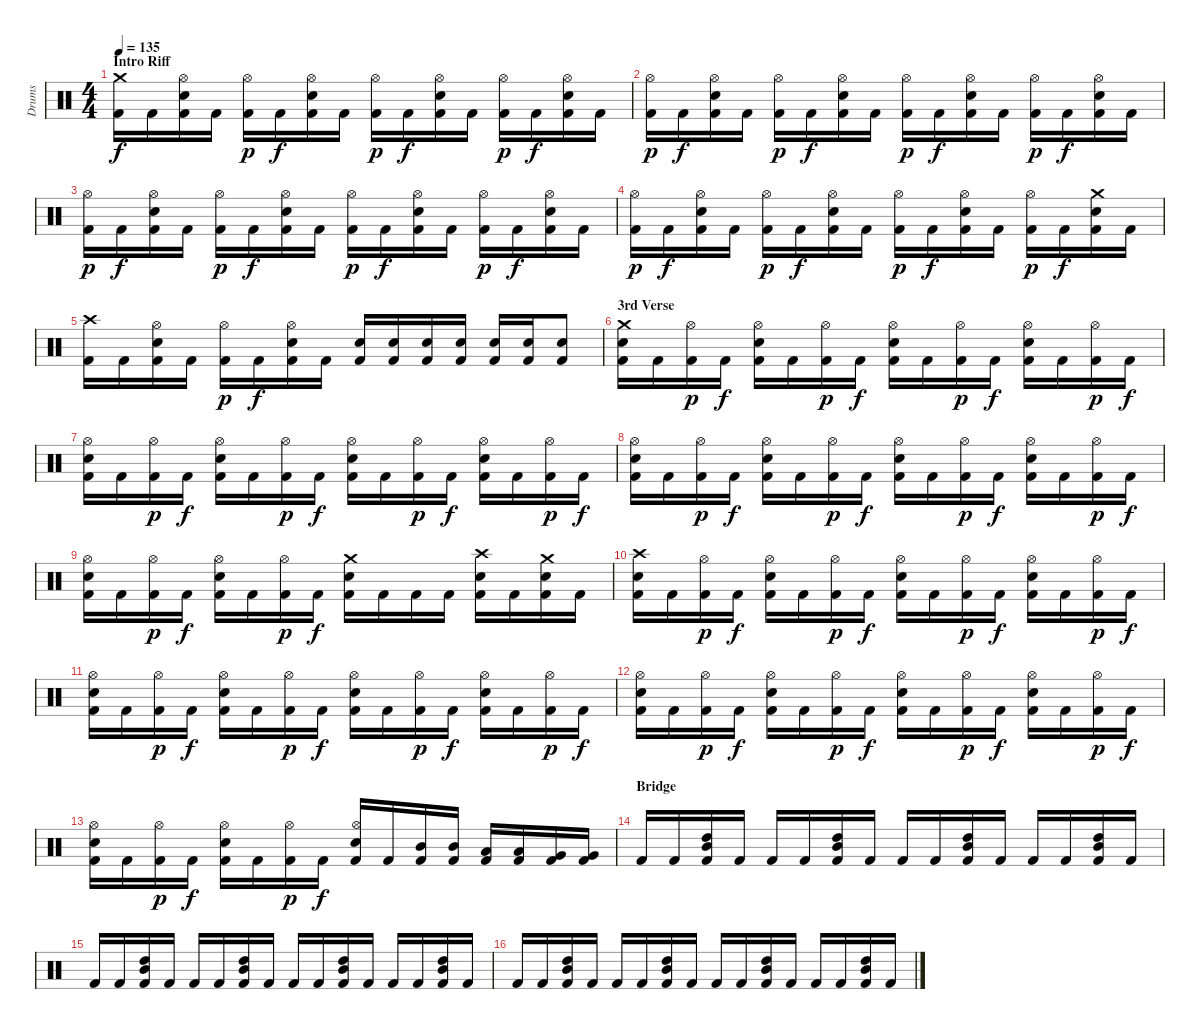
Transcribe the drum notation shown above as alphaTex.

\track ("Drums" "Drums") {instrument percussion}
\staff {score}
\articulation defaults
\ts (4 4)
\section ("" "Intro Riff")
\tempo 135
\clef neutral
\ks c
("Crash medium (hit)" "Kick (hit) 2").16{dy f} "Kick (hit) 2".16 ("Hi-Hat (open)" "Snare (hit) 2" "Kick (hit) 2").16 "Kick (hit) 2".16 ("Hi-Hat (open)" "Kick (hit) 2").16{dy p} "Kick (hit) 2".16{dy f} ("Hi-Hat (open)" "Snare (hit) 2" "Kick (hit) 2").16 "Kick (hit) 2".16 ("Hi-Hat (open)" "Kick (hit) 2").16{dy p} "Kick (hit) 2".16{dy f} ("Hi-Hat (open)" "Snare (hit) 2" "Kick (hit) 2").16 "Kick (hit) 2".16 ("Hi-Hat (open)" "Kick (hit) 2").16{dy p} "Kick (hit) 2".16{dy f} ("Hi-Hat (open)" "Snare (hit) 2" "Kick (hit) 2").16 "Kick (hit) 2".16 |
("Hi-Hat (open)" "Kick (hit) 2").16{dy p} "Kick (hit) 2".16{dy f} ("Hi-Hat (open)" "Snare (hit) 2" "Kick (hit) 2").16 "Kick (hit) 2".16 ("Hi-Hat (open)" "Kick (hit) 2").16{dy p} "Kick (hit) 2".16{dy f} ("Hi-Hat (open)" "Snare (hit) 2" "Kick (hit) 2").16 "Kick (hit) 2".16 ("Hi-Hat (open)" "Kick (hit) 2").16{dy p} "Kick (hit) 2".16{dy f} ("Hi-Hat (open)" "Snare (hit) 2" "Kick (hit) 2").16 "Kick (hit) 2".16 ("Hi-Hat (open)" "Kick (hit) 2").16{dy p} "Kick (hit) 2".16{dy f} ("Hi-Hat (open)" "Snare (hit) 2" "Kick (hit) 2").16 "Kick (hit) 2".16 |
("Hi-Hat (open)" "Kick (hit) 2").16{dy p} "Kick (hit) 2".16{dy f} ("Hi-Hat (open)" "Snare (hit) 2" "Kick (hit) 2").16 "Kick (hit) 2".16 ("Hi-Hat (open)" "Kick (hit) 2").16{dy p} "Kick (hit) 2".16{dy f} ("Hi-Hat (open)" "Snare (hit) 2" "Kick (hit) 2").16 "Kick (hit) 2".16 ("Hi-Hat (open)" "Kick (hit) 2").16{dy p} "Kick (hit) 2".16{dy f} ("Hi-Hat (open)" "Snare (hit) 2" "Kick (hit) 2").16 "Kick (hit) 2".16 ("Hi-Hat (open)" "Kick (hit) 2").16{dy p} "Kick (hit) 2".16{dy f} ("Hi-Hat (open)" "Snare (hit) 2" "Kick (hit) 2").16 "Kick (hit) 2".16 |
("Hi-Hat (open)" "Kick (hit) 2").16{dy p} "Kick (hit) 2".16{dy f} ("Hi-Hat (open)" "Snare (hit) 2" "Kick (hit) 2").16 "Kick (hit) 2".16 ("Hi-Hat (open)" "Kick (hit) 2").16{dy p} "Kick (hit) 2".16{dy f} ("Hi-Hat (open)" "Snare (hit) 2" "Kick (hit) 2").16 "Kick (hit) 2".16 ("Hi-Hat (open)" "Kick (hit) 2").16{dy p} "Kick (hit) 2".16{dy f} ("Hi-Hat (open)" "Snare (hit) 2" "Kick (hit) 2").16 "Kick (hit) 2".16 ("Hi-Hat (open)" "Kick (hit) 2").16{dy p} "Kick (hit) 2".16{dy f} ("Crash medium (hit)" "Snare (hit) 2" "Kick (hit) 2").16 "Kick (hit) 2".16 |
("Crash high (hit)" "Kick (hit) 2").16 "Kick (hit) 2".16 ("Hi-Hat (open)" "Snare (hit) 2" "Kick (hit) 2").16 "Kick (hit) 2".16 ("Hi-Hat (open)" "Kick (hit) 2").16{dy p} "Kick (hit) 2".16{dy f} ("Hi-Hat (open)" "Snare (hit) 2" "Kick (hit) 2").16 "Kick (hit) 2".16 ("Snare (hit) 2" "Kick (hit) 2").16 ("Snare (hit) 2" "Kick (hit) 2").16 ("Snare (hit) 2" "Kick (hit) 2").16 ("Snare (hit) 2" "Kick (hit) 2").16 ("Snare (hit) 2" "Kick (hit) 2").16 ("Snare (hit) 2" "Kick (hit) 2").16 ("Snare (hit) 2" "Kick (hit) 2").8 |
\section ("" "3rd Verse")
("Crash medium (hit)" "Snare (hit) 2" "Kick (hit) 2").16 "Kick (hit) 2".16 ("Hi-Hat (open)" "Kick (hit) 2").16{dy p} "Kick (hit) 2".16{dy f} ("Hi-Hat (open)" "Snare (hit) 2" "Kick (hit) 2").16 "Kick (hit) 2".16 ("Hi-Hat (open)" "Kick (hit) 2").16{dy p} "Kick (hit) 2".16{dy f} ("Hi-Hat (open)" "Snare (hit) 2" "Kick (hit) 2").16 "Kick (hit) 2".16 ("Hi-Hat (open)" "Kick (hit) 2").16{dy p} "Kick (hit) 2".16{dy f} ("Hi-Hat (open)" "Snare (hit) 2" "Kick (hit) 2").16 "Kick (hit) 2".16 ("Hi-Hat (open)" "Kick (hit) 2").16{dy p} "Kick (hit) 2".16{dy f} |
("Hi-Hat (open)" "Snare (hit) 2" "Kick (hit) 2").16 "Kick (hit) 2".16 ("Hi-Hat (open)" "Kick (hit) 2").16{dy p} "Kick (hit) 2".16{dy f} ("Hi-Hat (open)" "Snare (hit) 2" "Kick (hit) 2").16 "Kick (hit) 2".16 ("Hi-Hat (open)" "Kick (hit) 2").16{dy p} "Kick (hit) 2".16{dy f} ("Hi-Hat (open)" "Snare (hit) 2" "Kick (hit) 2").16 "Kick (hit) 2".16 ("Hi-Hat (open)" "Kick (hit) 2").16{dy p} "Kick (hit) 2".16{dy f} ("Hi-Hat (open)" "Snare (hit) 2" "Kick (hit) 2").16 "Kick (hit) 2".16 ("Hi-Hat (open)" "Kick (hit) 2").16{dy p} "Kick (hit) 2".16{dy f} |
("Hi-Hat (open)" "Snare (hit) 2" "Kick (hit) 2").16 "Kick (hit) 2".16 ("Hi-Hat (open)" "Kick (hit) 2").16{dy p} "Kick (hit) 2".16{dy f} ("Hi-Hat (open)" "Snare (hit) 2" "Kick (hit) 2").16 "Kick (hit) 2".16 ("Hi-Hat (open)" "Kick (hit) 2").16{dy p} "Kick (hit) 2".16{dy f} ("Hi-Hat (open)" "Snare (hit) 2" "Kick (hit) 2").16 "Kick (hit) 2".16 ("Hi-Hat (open)" "Kick (hit) 2").16{dy p} "Kick (hit) 2".16{dy f} ("Hi-Hat (open)" "Snare (hit) 2" "Kick (hit) 2").16 "Kick (hit) 2".16 ("Hi-Hat (open)" "Kick (hit) 2").16{dy p} "Kick (hit) 2".16{dy f} |
("Hi-Hat (open)" "Snare (hit) 2" "Kick (hit) 2").16 "Kick (hit) 2".16 ("Hi-Hat (open)" "Kick (hit) 2").16{dy p} "Kick (hit) 2".16{dy f} ("Hi-Hat (open)" "Snare (hit) 2" "Kick (hit) 2").16 "Kick (hit) 2".16 ("Hi-Hat (open)" "Kick (hit) 2").16{dy p} "Kick (hit) 2".16{dy f} ("Crash medium (hit)" "Snare (hit) 2" "Kick (hit) 2").16 "Kick (hit) 2".16 "Kick (hit) 2".16 "Kick (hit) 2".16 ("Crash high (hit)" "Snare (hit) 2" "Kick (hit) 2").16 "Kick (hit) 2".16 ("Crash medium (hit)" "Snare (hit) 2" "Kick (hit) 2").16 "Kick (hit) 2".16 |
("Crash high (hit)" "Snare (hit) 2" "Kick (hit) 2").16 "Kick (hit) 2".16 ("Hi-Hat (open)" "Kick (hit) 2").16{dy p} "Kick (hit) 2".16{dy f} ("Hi-Hat (open)" "Snare (hit) 2" "Kick (hit) 2").16 "Kick (hit) 2".16 ("Hi-Hat (open)" "Kick (hit) 2").16{dy p} "Kick (hit) 2".16{dy f} ("Hi-Hat (open)" "Snare (hit) 2" "Kick (hit) 2").16 "Kick (hit) 2".16 ("Hi-Hat (open)" "Kick (hit) 2").16{dy p} "Kick (hit) 2".16{dy f} ("Hi-Hat (open)" "Snare (hit) 2" "Kick (hit) 2").16 "Kick (hit) 2".16 ("Hi-Hat (open)" "Kick (hit) 2").16{dy p} "Kick (hit) 2".16{dy f} |
("Hi-Hat (open)" "Snare (hit) 2" "Kick (hit) 2").16 "Kick (hit) 2".16 ("Hi-Hat (open)" "Kick (hit) 2").16{dy p} "Kick (hit) 2".16{dy f} ("Hi-Hat (open)" "Snare (hit) 2" "Kick (hit) 2").16 "Kick (hit) 2".16 ("Hi-Hat (open)" "Kick (hit) 2").16{dy p} "Kick (hit) 2".16{dy f} ("Hi-Hat (open)" "Snare (hit) 2" "Kick (hit) 2").16 "Kick (hit) 2".16 ("Hi-Hat (open)" "Kick (hit) 2").16{dy p} "Kick (hit) 2".16{dy f} ("Hi-Hat (open)" "Snare (hit) 2" "Kick (hit) 2").16 "Kick (hit) 2".16 ("Hi-Hat (open)" "Kick (hit) 2").16{dy p} "Kick (hit) 2".16{dy f} |
("Hi-Hat (open)" "Snare (hit) 2" "Kick (hit) 2").16 "Kick (hit) 2".16 ("Hi-Hat (open)" "Kick (hit) 2").16{dy p} "Kick (hit) 2".16{dy f} ("Hi-Hat (open)" "Snare (hit) 2" "Kick (hit) 2").16 "Kick (hit) 2".16 ("Hi-Hat (open)" "Kick (hit) 2").16{dy p} "Kick (hit) 2".16{dy f} ("Hi-Hat (open)" "Snare (hit) 2" "Kick (hit) 2").16 "Kick (hit) 2".16 ("Hi-Hat (open)" "Kick (hit) 2").16{dy p} "Kick (hit) 2".16{dy f} ("Hi-Hat (open)" "Snare (hit) 2" "Kick (hit) 2").16 "Kick (hit) 2".16 ("Hi-Hat (open)" "Kick (hit) 2").16{dy p} "Kick (hit) 2".16{dy f} |
("Hi-Hat (open)" "Snare (hit) 2" "Kick (hit) 2").16 "Kick (hit) 2".16 ("Hi-Hat (open)" "Kick (hit) 2").16{dy p} "Kick (hit) 2".16{dy f} ("Hi-Hat (open)" "Snare (hit) 2" "Kick (hit) 2").16 "Kick (hit) 2".16 ("Hi-Hat (open)" "Kick (hit) 2").16{dy p} "Kick (hit) 2".16{dy f} ("Hi-Hat (open)" "Snare (hit) 2" "Kick (hit) 2").16 "Kick (hit) 2".16 ("Mid Tom (hit)" "Kick (hit) 2").16 ("Mid Tom (hit)" "Kick (hit) 2").16 ("Low Tom (hit)" "Kick (hit) 2").16 ("Low Tom (hit)" "Kick (hit) 2").16 ("Very Low Tom (hit)" "Kick (hit) 2").16 ("Very Low Tom (hit)" "Kick (hit) 2").16 |
\section ("" "Bridge")
"Kick (hit) 2".16 "Kick (hit) 2".16 ("High Tom (hit)" "Mid Tom (hit)" "Kick (hit) 2").16 "Kick (hit) 2".16 "Kick (hit) 2".16 "Kick (hit) 2".16 ("High Tom (hit)" "Mid Tom (hit)" "Kick (hit) 2").16 "Kick (hit) 2".16 "Kick (hit) 2".16 "Kick (hit) 2".16 ("High Tom (hit)" "Mid Tom (hit)" "Kick (hit) 2").16 "Kick (hit) 2".16 "Kick (hit) 2".16 "Kick (hit) 2".16 ("High Tom (hit)" "Mid Tom (hit)" "Kick (hit) 2").16 "Kick (hit) 2".16 |
"Kick (hit) 2".16 "Kick (hit) 2".16 ("High Tom (hit)" "Mid Tom (hit)" "Kick (hit) 2").16 "Kick (hit) 2".16 "Kick (hit) 2".16 "Kick (hit) 2".16 ("High Tom (hit)" "Mid Tom (hit)" "Kick (hit) 2").16 "Kick (hit) 2".16 "Kick (hit) 2".16 "Kick (hit) 2".16 ("High Tom (hit)" "Mid Tom (hit)" "Kick (hit) 2").16 "Kick (hit) 2".16 "Kick (hit) 2".16 "Kick (hit) 2".16 ("High Tom (hit)" "Mid Tom (hit)" "Kick (hit) 2").16 "Kick (hit) 2".16 |
"Kick (hit) 2".16 "Kick (hit) 2".16 ("High Tom (hit)" "Mid Tom (hit)" "Kick (hit) 2").16 "Kick (hit) 2".16 "Kick (hit) 2".16 "Kick (hit) 2".16 ("High Tom (hit)" "Mid Tom (hit)" "Kick (hit) 2").16 "Kick (hit) 2".16 "Kick (hit) 2".16 "Kick (hit) 2".16 ("High Tom (hit)" "Mid Tom (hit)" "Kick (hit) 2").16 "Kick (hit) 2".16 "Kick (hit) 2".16 "Kick (hit) 2".16 ("High Tom (hit)" "Mid Tom (hit)" "Kick (hit) 2").16 "Kick (hit) 2".16
